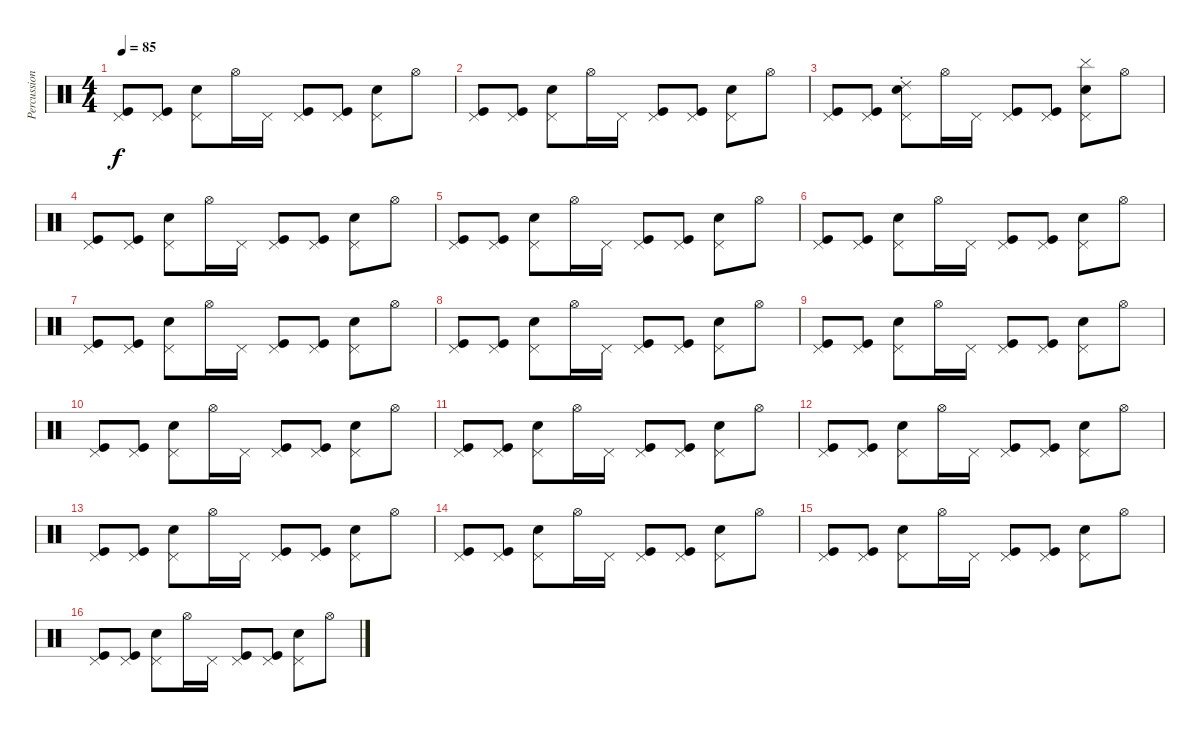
\track ("Percussions" "Percussion") {instrument percussion}
\staff {score}
\articulation defaults
\ts (4 4)
\tempo 85
\clef neutral
\ks c
("Pedal Hi-Hat (hit)" "Kick (hit)").8{dy f} ("Pedal Hi-Hat (hit)" "Kick (hit)").8 ("Pedal Hi-Hat (hit)" "Electric Snare (hit)").8 "Hi-Hat (open)".16 "Pedal Hi-Hat (hit)".16 ("Pedal Hi-Hat (hit)" "Kick (hit)").8 ("Pedal Hi-Hat (hit)" "Kick (hit)").8 ("Pedal Hi-Hat (hit)" "Electric Snare (hit)").8 "Hi-Hat (open)".8 |
("Pedal Hi-Hat (hit)" "Kick (hit)").8 ("Pedal Hi-Hat (hit)" "Kick (hit)").8 ("Pedal Hi-Hat (hit)" "Electric Snare (hit)").8 "Hi-Hat (open)".16 "Pedal Hi-Hat (hit)".16 ("Pedal Hi-Hat (hit)" "Kick (hit)").8 ("Pedal Hi-Hat (hit)" "Kick (hit)").8 ("Pedal Hi-Hat (hit)" "Electric Snare (hit)").8 "Hi-Hat (open)".8 |
("Pedal Hi-Hat (hit)" "Kick (hit)").8{volume 12} ("Pedal Hi-Hat (hit)" "Kick (hit)").8 ("Pedal Hi-Hat (hit)" "Ride (choke) 2" "Electric Snare (hit)").8 "Hi-Hat (open)".16 "Pedal Hi-Hat (hit)".16 ("Pedal Hi-Hat (hit)" "Kick (hit)").8 ("Pedal Hi-Hat (hit)" "Kick (hit)").8 ("Pedal Hi-Hat (hit)" "Cymbal (hit)" "Electric Snare (hit)").8 "Hi-Hat (open)".8 |
("Pedal Hi-Hat (hit)" "Kick (hit)").8 ("Pedal Hi-Hat (hit)" "Kick (hit)").8 ("Pedal Hi-Hat (hit)" "Electric Snare (hit)").8 "Hi-Hat (open)".16 "Pedal Hi-Hat (hit)".16 ("Pedal Hi-Hat (hit)" "Kick (hit)").8 ("Pedal Hi-Hat (hit)" "Kick (hit)").8 ("Pedal Hi-Hat (hit)" "Electric Snare (hit)").8 "Hi-Hat (open)".8 |
("Pedal Hi-Hat (hit)" "Kick (hit)").8 ("Pedal Hi-Hat (hit)" "Kick (hit)").8 ("Pedal Hi-Hat (hit)" "Electric Snare (hit)").8 "Hi-Hat (open)".16 "Pedal Hi-Hat (hit)".16 ("Pedal Hi-Hat (hit)" "Kick (hit)").8 ("Pedal Hi-Hat (hit)" "Kick (hit)").8 ("Pedal Hi-Hat (hit)" "Electric Snare (hit)").8 "Hi-Hat (open)".8 |
("Pedal Hi-Hat (hit)" "Kick (hit)").8 ("Pedal Hi-Hat (hit)" "Kick (hit)").8 ("Pedal Hi-Hat (hit)" "Electric Snare (hit)").8 "Hi-Hat (open)".16 "Pedal Hi-Hat (hit)".16 ("Pedal Hi-Hat (hit)" "Kick (hit)").8 ("Pedal Hi-Hat (hit)" "Kick (hit)").8 ("Pedal Hi-Hat (hit)" "Electric Snare (hit)").8 "Hi-Hat (open)".8 |
("Pedal Hi-Hat (hit)" "Kick (hit)").8{volume 12} ("Pedal Hi-Hat (hit)" "Kick (hit)").8 ("Pedal Hi-Hat (hit)" "Electric Snare (hit)").8 "Hi-Hat (open)".16 "Pedal Hi-Hat (hit)".16 ("Pedal Hi-Hat (hit)" "Kick (hit)").8 ("Pedal Hi-Hat (hit)" "Kick (hit)").8 ("Pedal Hi-Hat (hit)" "Electric Snare (hit)").8 "Hi-Hat (open)".8 |
("Pedal Hi-Hat (hit)" "Kick (hit)").8 ("Pedal Hi-Hat (hit)" "Kick (hit)").8 ("Pedal Hi-Hat (hit)" "Electric Snare (hit)").8 "Hi-Hat (open)".16 "Pedal Hi-Hat (hit)".16 ("Pedal Hi-Hat (hit)" "Kick (hit)").8 ("Pedal Hi-Hat (hit)" "Kick (hit)").8 ("Pedal Hi-Hat (hit)" "Electric Snare (hit)").8 "Hi-Hat (open)".8 |
("Pedal Hi-Hat (hit)" "Kick (hit)").8 ("Pedal Hi-Hat (hit)" "Kick (hit)").8 ("Pedal Hi-Hat (hit)" "Electric Snare (hit)").8 "Hi-Hat (open)".16 "Pedal Hi-Hat (hit)".16 ("Pedal Hi-Hat (hit)" "Kick (hit)").8 ("Pedal Hi-Hat (hit)" "Kick (hit)").8 ("Pedal Hi-Hat (hit)" "Electric Snare (hit)").8 "Hi-Hat (open)".8 |
("Pedal Hi-Hat (hit)" "Kick (hit)").8 ("Pedal Hi-Hat (hit)" "Kick (hit)").8 ("Pedal Hi-Hat (hit)" "Electric Snare (hit)").8 "Hi-Hat (open)".16 "Pedal Hi-Hat (hit)".16 ("Pedal Hi-Hat (hit)" "Kick (hit)").8 ("Pedal Hi-Hat (hit)" "Kick (hit)").8 ("Pedal Hi-Hat (hit)" "Electric Snare (hit)").8 "Hi-Hat (open)".8 |
("Pedal Hi-Hat (hit)" "Kick (hit)").8{volume 13} ("Pedal Hi-Hat (hit)" "Kick (hit)").8 ("Pedal Hi-Hat (hit)" "Electric Snare (hit)").8 "Hi-Hat (open)".16 "Pedal Hi-Hat (hit)".16 ("Pedal Hi-Hat (hit)" "Kick (hit)").8 ("Pedal Hi-Hat (hit)" "Kick (hit)").8 ("Pedal Hi-Hat (hit)" "Electric Snare (hit)").8 "Hi-Hat (open)".8 |
("Pedal Hi-Hat (hit)" "Kick (hit)").8 ("Pedal Hi-Hat (hit)" "Kick (hit)").8 ("Pedal Hi-Hat (hit)" "Electric Snare (hit)").8 "Hi-Hat (open)".16 "Pedal Hi-Hat (hit)".16 ("Pedal Hi-Hat (hit)" "Kick (hit)").8 ("Pedal Hi-Hat (hit)" "Kick (hit)").8 ("Pedal Hi-Hat (hit)" "Electric Snare (hit)").8 "Hi-Hat (open)".8 |
("Pedal Hi-Hat (hit)" "Kick (hit)").8{volume 13} ("Pedal Hi-Hat (hit)" "Kick (hit)").8 ("Pedal Hi-Hat (hit)" "Electric Snare (hit)").8 "Hi-Hat (open)".16 "Pedal Hi-Hat (hit)".16 ("Pedal Hi-Hat (hit)" "Kick (hit)").8 ("Pedal Hi-Hat (hit)" "Kick (hit)").8 ("Pedal Hi-Hat (hit)" "Electric Snare (hit)").8 "Hi-Hat (open)".8 |
("Pedal Hi-Hat (hit)" "Kick (hit)").8 ("Pedal Hi-Hat (hit)" "Kick (hit)").8 ("Pedal Hi-Hat (hit)" "Electric Snare (hit)").8 "Hi-Hat (open)".16 "Pedal Hi-Hat (hit)".16 ("Pedal Hi-Hat (hit)" "Kick (hit)").8 ("Pedal Hi-Hat (hit)" "Kick (hit)").8 ("Pedal Hi-Hat (hit)" "Electric Snare (hit)").8 "Hi-Hat (open)".8 |
("Pedal Hi-Hat (hit)" "Kick (hit)").8{volume 13} ("Pedal Hi-Hat (hit)" "Kick (hit)").8 ("Pedal Hi-Hat (hit)" "Electric Snare (hit)").8 "Hi-Hat (open)".16 "Pedal Hi-Hat (hit)".16 ("Pedal Hi-Hat (hit)" "Kick (hit)").8 ("Pedal Hi-Hat (hit)" "Kick (hit)").8 ("Pedal Hi-Hat (hit)" "Electric Snare (hit)").8 "Hi-Hat (open)".8 |
("Pedal Hi-Hat (hit)" "Kick (hit)").8 ("Pedal Hi-Hat (hit)" "Kick (hit)").8 ("Pedal Hi-Hat (hit)" "Electric Snare (hit)").8 "Hi-Hat (open)".16 "Pedal Hi-Hat (hit)".16 ("Pedal Hi-Hat (hit)" "Kick (hit)").8 ("Pedal Hi-Hat (hit)" "Kick (hit)").8 ("Pedal Hi-Hat (hit)" "Electric Snare (hit)").8 "Hi-Hat (open)".8
